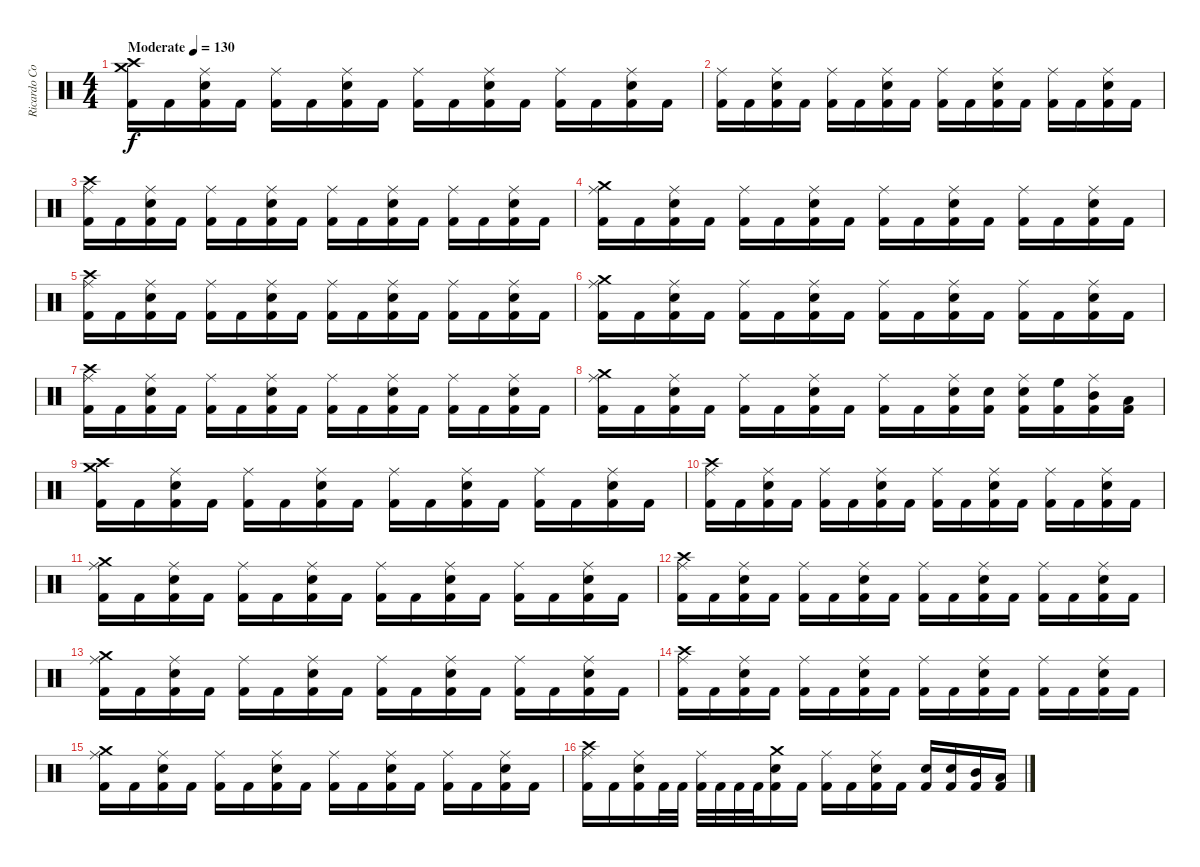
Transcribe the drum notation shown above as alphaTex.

\track ("Ricardo Confessori" "Ricardo Co") {instrument percussion}
\staff {score}
\articulation defaults
\ts (4 4)
\tempo (130 "Moderate")
\clef neutral
\ks c
("Crash medium (hit)" "Crash high (hit)" "Kick (hit) 2").16{dy f} "Kick (hit) 2".16 ("Ride (middle)" "Electric Snare (hit)" "Kick (hit) 2").16 "Kick (hit) 2".16 ("Ride (middle)" "Kick (hit) 2").16 "Kick (hit) 2".16 ("Ride (middle)" "Electric Snare (hit)" "Kick (hit) 2").16 "Kick (hit) 2".16 ("Ride (middle)" "Kick (hit) 2").16 "Kick (hit) 2".16 ("Ride (middle)" "Electric Snare (hit)" "Kick (hit) 2").16 "Kick (hit) 2".16 ("Ride (middle)" "Kick (hit) 2").16 "Kick (hit) 2".16 ("Ride (middle)" "Electric Snare (hit)" "Kick (hit) 2").16 "Kick (hit) 2".16 |
("Ride (middle)" "Kick (hit) 2").16 "Kick (hit) 2".16 ("Ride (middle)" "Electric Snare (hit)" "Kick (hit) 2").16 "Kick (hit) 2".16 ("Ride (middle)" "Kick (hit) 2").16 "Kick (hit) 2".16 ("Ride (middle)" "Electric Snare (hit)" "Kick (hit) 2").16 "Kick (hit) 2".16 ("Ride (middle)" "Kick (hit) 2").16 "Kick (hit) 2".16 ("Ride (middle)" "Electric Snare (hit)" "Kick (hit) 2").16 "Kick (hit) 2".16 ("Ride (middle)" "Kick (hit) 2").16 "Kick (hit) 2".16 ("Ride (middle)" "Electric Snare (hit)" "Kick (hit) 2").16 "Kick (hit) 2".16 |
("Crash high (hit)" "Ride (middle)" "Kick (hit) 2").16 "Kick (hit) 2".16 ("Ride (middle)" "Electric Snare (hit)" "Kick (hit) 2").16 "Kick (hit) 2".16 ("Ride (middle)" "Kick (hit) 2").16 "Kick (hit) 2".16 ("Ride (middle)" "Electric Snare (hit)" "Kick (hit) 2").16 "Kick (hit) 2".16 ("Ride (middle)" "Kick (hit) 2").16 "Kick (hit) 2".16 ("Ride (middle)" "Electric Snare (hit)" "Kick (hit) 2").16 "Kick (hit) 2".16 ("Ride (middle)" "Kick (hit) 2").16 "Kick (hit) 2".16 ("Ride (middle)" "Electric Snare (hit)" "Kick (hit) 2").16 "Kick (hit) 2".16 |
("Crash medium (hit)" "Ride (middle)" "Kick (hit) 2").16 "Kick (hit) 2".16 ("Ride (middle)" "Electric Snare (hit)" "Kick (hit) 2").16 "Kick (hit) 2".16 ("Ride (middle)" "Kick (hit) 2").16 "Kick (hit) 2".16 ("Ride (middle)" "Electric Snare (hit)" "Kick (hit) 2").16 "Kick (hit) 2".16 ("Ride (middle)" "Kick (hit) 2").16 "Kick (hit) 2".16 ("Ride (middle)" "Electric Snare (hit)" "Kick (hit) 2").16 "Kick (hit) 2".16 ("Ride (middle)" "Kick (hit) 2").16 "Kick (hit) 2".16 ("Ride (middle)" "Electric Snare (hit)" "Kick (hit) 2").16 "Kick (hit) 2".16 |
("Crash high (hit)" "Ride (middle)" "Kick (hit) 2").16 "Kick (hit) 2".16 ("Ride (middle)" "Electric Snare (hit)" "Kick (hit) 2").16 "Kick (hit) 2".16 ("Ride (middle)" "Kick (hit) 2").16 "Kick (hit) 2".16 ("Ride (middle)" "Electric Snare (hit)" "Kick (hit) 2").16 "Kick (hit) 2".16 ("Ride (middle)" "Kick (hit) 2").16 "Kick (hit) 2".16 ("Ride (middle)" "Electric Snare (hit)" "Kick (hit) 2").16 "Kick (hit) 2".16 ("Ride (middle)" "Kick (hit) 2").16 "Kick (hit) 2".16 ("Ride (middle)" "Electric Snare (hit)" "Kick (hit) 2").16 "Kick (hit) 2".16 |
("Crash medium (hit)" "Ride (middle)" "Kick (hit) 2").16 "Kick (hit) 2".16 ("Ride (middle)" "Electric Snare (hit)" "Kick (hit) 2").16 "Kick (hit) 2".16 ("Ride (middle)" "Kick (hit) 2").16 "Kick (hit) 2".16 ("Ride (middle)" "Electric Snare (hit)" "Kick (hit) 2").16 "Kick (hit) 2".16 ("Ride (middle)" "Kick (hit) 2").16 "Kick (hit) 2".16 ("Ride (middle)" "Electric Snare (hit)" "Kick (hit) 2").16 "Kick (hit) 2".16 ("Ride (middle)" "Kick (hit) 2").16 "Kick (hit) 2".16 ("Ride (middle)" "Electric Snare (hit)" "Kick (hit) 2").16 "Kick (hit) 2".16 |
("Crash high (hit)" "Ride (middle)" "Kick (hit) 2").16 "Kick (hit) 2".16 ("Ride (middle)" "Electric Snare (hit)" "Kick (hit) 2").16 "Kick (hit) 2".16 ("Ride (middle)" "Kick (hit) 2").16 "Kick (hit) 2".16 ("Ride (middle)" "Electric Snare (hit)" "Kick (hit) 2").16 "Kick (hit) 2".16 ("Ride (middle)" "Kick (hit) 2").16 "Kick (hit) 2".16 ("Ride (middle)" "Electric Snare (hit)" "Kick (hit) 2").16 "Kick (hit) 2".16 ("Ride (middle)" "Kick (hit) 2").16 "Kick (hit) 2".16 ("Ride (middle)" "Electric Snare (hit)" "Kick (hit) 2").16 "Kick (hit) 2".16 |
("Crash medium (hit)" "Ride (middle)" "Kick (hit) 2").16 "Kick (hit) 2".16 ("Ride (middle)" "Electric Snare (hit)" "Kick (hit) 2").16 "Kick (hit) 2".16 ("Ride (middle)" "Kick (hit) 2").16 "Kick (hit) 2".16 ("Ride (middle)" "Electric Snare (hit)" "Kick (hit) 2").16 "Kick (hit) 2".16 ("Ride (middle)" "Kick (hit) 2").16 "Kick (hit) 2".16 ("Ride (middle)" "Electric Snare (hit)" "Kick (hit) 2").16 ("Electric Snare (hit)" "Kick (hit) 2").16 ("Ride (middle)" "Electric Snare (hit)" "Kick (hit) 2").16 ("High Floor Tom (hit)" "Kick (hit) 2").16 ("Ride (middle)" "Mid Tom (hit)" "Kick (hit) 2").16 ("Low Tom (hit)" "Kick (hit) 2").16 |
("Crash medium (hit)" "Crash high (hit)" "Kick (hit) 2").16 "Kick (hit) 2".16 ("Ride (middle)" "Electric Snare (hit)" "Kick (hit) 2").16 "Kick (hit) 2".16 ("Ride (middle)" "Kick (hit) 2").16 "Kick (hit) 2".16 ("Ride (middle)" "Electric Snare (hit)" "Kick (hit) 2").16 "Kick (hit) 2".16 ("Ride (middle)" "Kick (hit) 2").16 "Kick (hit) 2".16 ("Ride (middle)" "Electric Snare (hit)" "Kick (hit) 2").16 "Kick (hit) 2".16 ("Ride (middle)" "Kick (hit) 2").16 "Kick (hit) 2".16 ("Ride (middle)" "Electric Snare (hit)" "Kick (hit) 2").16 "Kick (hit) 2".16 |
("Crash high (hit)" "Ride (middle)" "Kick (hit) 2").16 "Kick (hit) 2".16 ("Ride (middle)" "Electric Snare (hit)" "Kick (hit) 2").16 "Kick (hit) 2".16 ("Ride (middle)" "Kick (hit) 2").16 "Kick (hit) 2".16 ("Ride (middle)" "Electric Snare (hit)" "Kick (hit) 2").16 "Kick (hit) 2".16 ("Ride (middle)" "Kick (hit) 2").16 "Kick (hit) 2".16 ("Ride (middle)" "Electric Snare (hit)" "Kick (hit) 2").16 "Kick (hit) 2".16 ("Ride (middle)" "Kick (hit) 2").16 "Kick (hit) 2".16 ("Ride (middle)" "Electric Snare (hit)" "Kick (hit) 2").16 "Kick (hit) 2".16 |
("Crash medium (hit)" "Ride (middle)" "Kick (hit) 2").16 "Kick (hit) 2".16 ("Ride (middle)" "Electric Snare (hit)" "Kick (hit) 2").16 "Kick (hit) 2".16 ("Ride (middle)" "Kick (hit) 2").16 "Kick (hit) 2".16 ("Ride (middle)" "Electric Snare (hit)" "Kick (hit) 2").16 "Kick (hit) 2".16 ("Ride (middle)" "Kick (hit) 2").16 "Kick (hit) 2".16 ("Ride (middle)" "Electric Snare (hit)" "Kick (hit) 2").16 "Kick (hit) 2".16 ("Ride (middle)" "Kick (hit) 2").16 "Kick (hit) 2".16 ("Ride (middle)" "Electric Snare (hit)" "Kick (hit) 2").16 "Kick (hit) 2".16 |
("Crash high (hit)" "Ride (middle)" "Kick (hit) 2").16 "Kick (hit) 2".16 ("Ride (middle)" "Electric Snare (hit)" "Kick (hit) 2").16 "Kick (hit) 2".16 ("Ride (middle)" "Kick (hit) 2").16 "Kick (hit) 2".16 ("Ride (middle)" "Electric Snare (hit)" "Kick (hit) 2").16 "Kick (hit) 2".16 ("Ride (middle)" "Kick (hit) 2").16 "Kick (hit) 2".16 ("Ride (middle)" "Electric Snare (hit)" "Kick (hit) 2").16 "Kick (hit) 2".16 ("Ride (middle)" "Kick (hit) 2").16 "Kick (hit) 2".16 ("Ride (middle)" "Electric Snare (hit)" "Kick (hit) 2").16 "Kick (hit) 2".16 |
("Crash medium (hit)" "Ride (middle)" "Kick (hit) 2").16 "Kick (hit) 2".16 ("Ride (middle)" "Electric Snare (hit)" "Kick (hit) 2").16 "Kick (hit) 2".16 ("Ride (middle)" "Kick (hit) 2").16 "Kick (hit) 2".16 ("Ride (middle)" "Electric Snare (hit)" "Kick (hit) 2").16 "Kick (hit) 2".16 ("Ride (middle)" "Kick (hit) 2").16 "Kick (hit) 2".16 ("Ride (middle)" "Electric Snare (hit)" "Kick (hit) 2").16 "Kick (hit) 2".16 ("Ride (middle)" "Kick (hit) 2").16 "Kick (hit) 2".16 ("Ride (middle)" "Electric Snare (hit)" "Kick (hit) 2").16 "Kick (hit) 2".16 |
("Crash high (hit)" "Ride (middle)" "Kick (hit) 2").16 "Kick (hit) 2".16 ("Ride (middle)" "Electric Snare (hit)" "Kick (hit) 2").16 "Kick (hit) 2".16 ("Ride (middle)" "Kick (hit) 2").16 "Kick (hit) 2".16 ("Ride (middle)" "Electric Snare (hit)" "Kick (hit) 2").16 "Kick (hit) 2".16 ("Ride (middle)" "Kick (hit) 2").16 "Kick (hit) 2".16 ("Ride (middle)" "Electric Snare (hit)" "Kick (hit) 2").16 "Kick (hit) 2".16 ("Ride (middle)" "Kick (hit) 2").16 "Kick (hit) 2".16 ("Ride (middle)" "Electric Snare (hit)" "Kick (hit) 2").16 "Kick (hit) 2".16 |
("Crash medium (hit)" "Ride (middle)" "Kick (hit) 2").16 "Kick (hit) 2".16 ("Ride (middle)" "Electric Snare (hit)" "Kick (hit) 2").16 "Kick (hit) 2".16 ("Ride (middle)" "Kick (hit) 2").16 "Kick (hit) 2".16 ("Ride (middle)" "Electric Snare (hit)" "Kick (hit) 2").16 "Kick (hit) 2".16 ("Ride (middle)" "Kick (hit) 2").16 "Kick (hit) 2".16 ("Ride (middle)" "Electric Snare (hit)" "Kick (hit) 2").16 "Kick (hit) 2".16 ("Ride (middle)" "Kick (hit) 2").16 "Kick (hit) 2".16 ("Ride (middle)" "Electric Snare (hit)" "Kick (hit) 2").16 "Kick (hit) 2".16 |
("Crash high (hit)" "Ride (middle)" "Kick (hit) 2").16 "Kick (hit) 2".16 ("Ride (middle)" "Electric Snare (hit)" "Kick (hit) 2").16 "Kick (hit) 2".32 "Kick (hit) 2".32 ("Ride (middle)" "Kick (hit) 2").32 "Kick (hit) 2".32 "Kick (hit) 2".32 "Kick (hit) 2".32 ("Crash medium (hit)" "Electric Snare (hit)" "Kick (hit) 2").16 "Kick (hit) 2".16 ("Ride (middle)" "Kick (hit) 2").16 "Kick (hit) 2".16 ("Ride (middle)" "Electric Snare (hit)" "Kick (hit) 2").16 "Kick (hit) 2".16 ("Electric Snare (hit)" "Kick (hit) 2").16 ("Electric Snare (hit)" "Kick (hit) 2").16 ("Mid Tom (hit)" "Kick (hit) 2").16 ("Low Tom (hit)" "Kick (hit) 2").16
